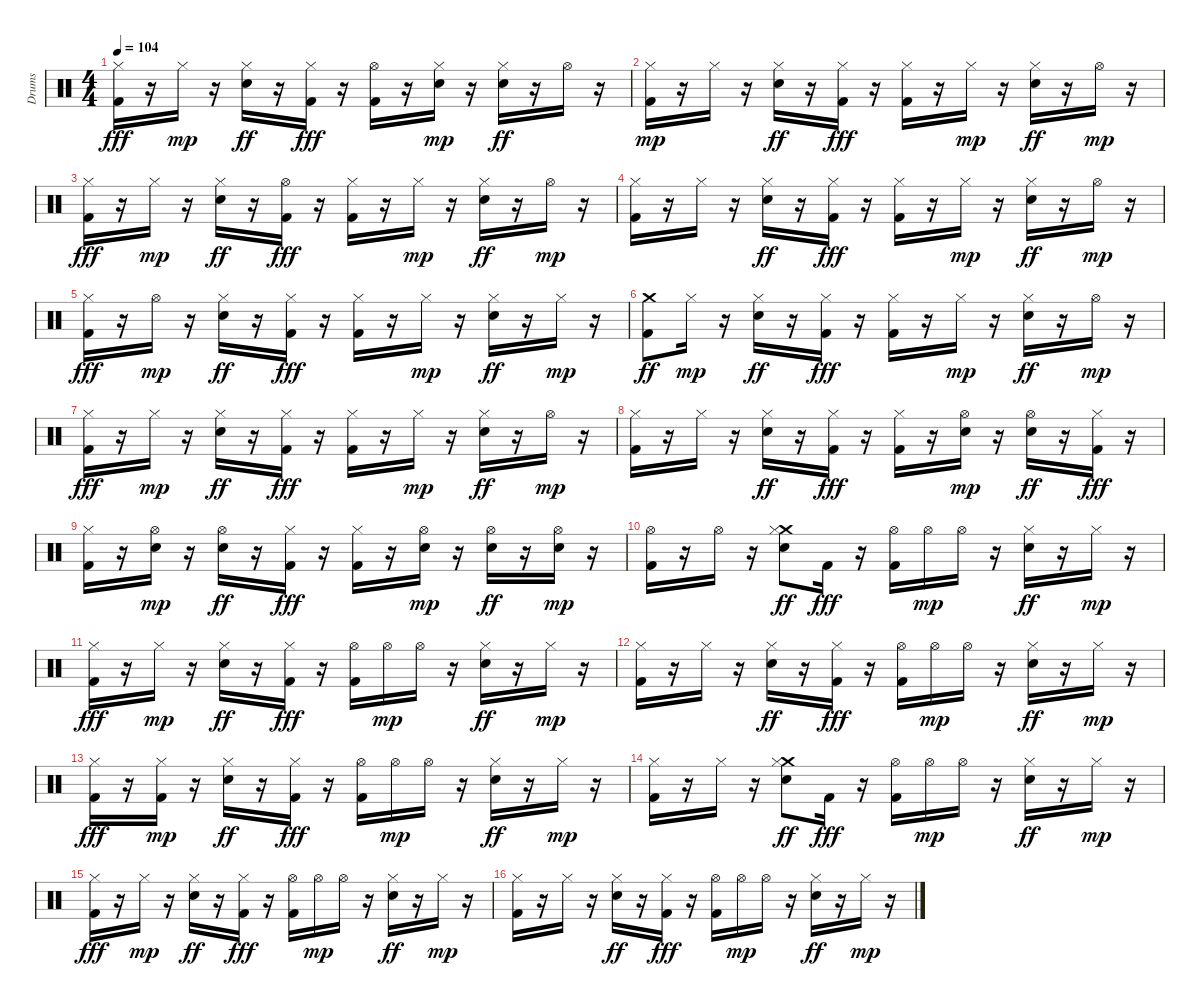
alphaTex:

\track ("Drums" "Drums") {instrument percussion}
\staff {score}
\articulation defaults
\ts (4 4)
\tempo 104
\clef neutral
\ks c
("Hi-Hat (closed)" "Kick (hit) 2").16{dy fff} r.16 "Hi-Hat (closed)".16{dy mp} r.16 ("Hi-Hat (closed)" "Snare (hit) 2").16{dy ff} r.16 ("Hi-Hat (closed)" "Kick (hit) 2").16{dy fff} r.16 ("Hi-Hat (open)" "Kick (hit) 2").16 r.16 ("Snare (hit) 2" "Hi-Hat (closed)").16{dy mp} r.16 ("Hi-Hat (closed)" "Snare (hit) 2").16{dy ff} r.16 "Hi-Hat (open)".16 r.16 |
("Kick (hit) 2" "Hi-Hat (closed)").16{dy mp} r.16 "Hi-Hat (closed)".16 r.16 ("Hi-Hat (closed)" "Snare (hit) 2").16{dy ff} r.16 ("Hi-Hat (closed)" "Kick (hit) 2").16{dy fff} r.16 ("Hi-Hat (closed)" "Kick (hit) 2").16 r.16 "Hi-Hat (closed)".16{dy mp} r.16 ("Hi-Hat (closed)" "Snare (hit) 2").16{dy ff} r.16 "Hi-Hat (open)".16{dy mp} r.16 |
("Hi-Hat (closed)" "Kick (hit) 2").16{dy fff} r.16 "Hi-Hat (closed)".16{dy mp} r.16 ("Hi-Hat (closed)" "Snare (hit) 2").16{dy ff} r.16 ("Hi-Hat (open)" "Kick (hit) 2").16{dy fff} r.16 ("Hi-Hat (closed)" "Kick (hit) 2").16 r.16 "Hi-Hat (closed)".16{dy mp} r.16 ("Hi-Hat (closed)" "Snare (hit) 2").16{dy ff} r.16 "Hi-Hat (open)".16{dy mp} r.16 |
("Kick (hit) 2" "Hi-Hat (closed)").16 r.16 "Hi-Hat (closed)".16 r.16 ("Hi-Hat (closed)" "Snare (hit) 2").16{dy ff} r.16 ("Hi-Hat (closed)" "Kick (hit) 2").16{dy fff} r.16 ("Hi-Hat (closed)" "Kick (hit) 2").16 r.16 "Hi-Hat (closed)".16{dy mp} r.16 ("Hi-Hat (closed)" "Snare (hit) 2").16{dy ff} r.16 "Hi-Hat (open)".16{dy mp} r.16 |
("Hi-Hat (closed)" "Kick (hit) 2").16{dy fff} r.16 "Hi-Hat (open)".16{dy mp} r.16 ("Hi-Hat (closed)" "Snare (hit) 2").16{dy ff} r.16 ("Hi-Hat (closed)" "Kick (hit) 2").16{dy fff} r.16 ("Hi-Hat (closed)" "Kick (hit) 2").16 r.16 "Hi-Hat (closed)".16{dy mp} r.16 ("Hi-Hat (closed)" "Snare (hit) 2").16{dy ff} r.16 "Hi-Hat (closed)".16{dy mp} r.16 |
("Kick (hit) 2" "Crash medium (hit)").8{dy ff} "Hi-Hat (closed)".16{dy mp} r.16 ("Hi-Hat (closed)" "Snare (hit) 2").16{dy ff} r.16 ("Hi-Hat (closed)" "Kick (hit) 2").16{dy fff} r.16 ("Hi-Hat (closed)" "Kick (hit) 2").16 r.16 "Hi-Hat (closed)".16{dy mp} r.16 ("Hi-Hat (closed)" "Snare (hit) 2").16{dy ff} r.16 "Hi-Hat (open)".16{dy mp} r.16 |
("Hi-Hat (closed)" "Kick (hit) 2").16{dy fff} r.16 "Hi-Hat (closed)".16{dy mp} r.16 ("Hi-Hat (closed)" "Snare (hit) 2").16{dy ff} r.16 ("Hi-Hat (closed)" "Kick (hit) 2").16{dy fff} r.16 ("Hi-Hat (closed)" "Kick (hit) 2").16 r.16 "Hi-Hat (closed)".16{dy mp} r.16 ("Hi-Hat (closed)" "Snare (hit) 2").16{dy ff} r.16 "Hi-Hat (open)".16{dy mp} r.16 |
("Kick (hit) 2" "Hi-Hat (closed)").16 r.16 "Hi-Hat (closed)".16 r.16 ("Hi-Hat (closed)" "Snare (hit) 2").16{dy ff} r.16 ("Hi-Hat (closed)" "Kick (hit) 2").16{dy fff} r.16 ("Hi-Hat (closed)" "Kick (hit) 2").16 r.16 ("Snare (hit) 2" "Hi-Hat (open)").16{dy mp} r.16 ("Hi-Hat (open)" "Snare (hit) 2").16{dy ff} r.16 ("Kick (hit) 2" "Hi-Hat (closed)").16{dy fff} r.16 |
("Hi-Hat (closed)" "Kick (hit) 2").16 r.16 ("Snare (hit) 2" "Hi-Hat (open)").16{dy mp} r.16 ("Hi-Hat (open)" "Snare (hit) 2").16{dy ff} r.16 ("Hi-Hat (closed)" "Kick (hit) 2").16{dy fff} r.16 ("Hi-Hat (closed)" "Kick (hit) 2").16 r.16 ("Snare (hit) 2" "Hi-Hat (open)").16{dy mp} r.16 ("Hi-Hat (open)" "Snare (hit) 2").16{dy ff} r.16 ("Snare (hit) 2" "Hi-Hat (open)").16{dy mp} r.16 |
("Kick (hit) 2" "Hi-Hat (open)").16 r.16 "Hi-Hat (open)".16 r.16 ("Crash medium (hit)" "Hi-Hat (closed)" "Snare (hit) 2").8{dy ff} "Kick (hit) 2".16{dy fff} r.16 ("Hi-Hat (open)" "Kick (hit) 2").16 "Hi-Hat (open)".16{dy mp} "Hi-Hat (open)".16 r.16 ("Hi-Hat (closed)" "Snare (hit) 2").16{dy ff} r.16 "Hi-Hat (closed)".16{dy mp} r.16 |
("Hi-Hat (closed)" "Kick (hit) 2").16{dy fff} r.16 "Hi-Hat (closed)".16{dy mp} r.16 ("Hi-Hat (closed)" "Snare (hit) 2").16{dy ff} r.16 ("Hi-Hat (closed)" "Kick (hit) 2").16{dy fff} r.16 ("Hi-Hat (open)" "Kick (hit) 2").16 "Hi-Hat (open)".16{dy mp} "Hi-Hat (open)".16 r.16 ("Hi-Hat (closed)" "Snare (hit) 2").16{dy ff} r.16 "Hi-Hat (closed)".16{dy mp} r.16 |
("Kick (hit) 2" "Hi-Hat (closed)").16 r.16 "Hi-Hat (closed)".16 r.16 ("Hi-Hat (closed)" "Snare (hit) 2").16{dy ff} r.16 ("Hi-Hat (closed)" "Kick (hit) 2").16{dy fff} r.16 ("Hi-Hat (open)" "Kick (hit) 2").16 "Hi-Hat (open)".16{dy mp} "Hi-Hat (open)".16 r.16 ("Hi-Hat (closed)" "Snare (hit) 2").16{dy ff} r.16 "Hi-Hat (closed)".16{dy mp} r.16 |
("Hi-Hat (closed)" "Kick (hit) 2").16{dy fff} r.16 ("Kick (hit) 2" "Hi-Hat (closed)").16{dy mp} r.16 ("Hi-Hat (closed)" "Snare (hit) 2").16{dy ff} r.16 ("Hi-Hat (closed)" "Kick (hit) 2").16{dy fff} r.16 ("Hi-Hat (open)" "Kick (hit) 2").16 "Hi-Hat (open)".16{dy mp} "Hi-Hat (open)".16 r.16 ("Hi-Hat (closed)" "Snare (hit) 2").16{dy ff} r.16 "Hi-Hat (closed)".16{dy mp} r.16 |
("Kick (hit) 2" "Hi-Hat (closed)").16 r.16 "Hi-Hat (closed)".16 r.16 ("Crash medium (hit)" "Hi-Hat (closed)" "Snare (hit) 2").8{dy ff} "Kick (hit) 2".16{dy fff} r.16 ("Hi-Hat (open)" "Kick (hit) 2").16 "Hi-Hat (open)".16{dy mp} "Hi-Hat (open)".16 r.16 ("Hi-Hat (closed)" "Snare (hit) 2").16{dy ff} r.16 "Hi-Hat (closed)".16{dy mp} r.16 |
("Hi-Hat (closed)" "Kick (hit) 2").16{dy fff} r.16 "Hi-Hat (closed)".16{dy mp} r.16 ("Hi-Hat (closed)" "Snare (hit) 2").16{dy ff} r.16 ("Hi-Hat (closed)" "Kick (hit) 2").16{dy fff} r.16 ("Hi-Hat (open)" "Kick (hit) 2").16 "Hi-Hat (open)".16{dy mp} "Hi-Hat (open)".16 r.16 ("Hi-Hat (closed)" "Snare (hit) 2").16{dy ff} r.16 "Hi-Hat (closed)".16{dy mp} r.16 |
("Kick (hit) 2" "Hi-Hat (closed)").16 r.16 "Hi-Hat (closed)".16 r.16 ("Hi-Hat (closed)" "Snare (hit) 2").16{dy ff} r.16 ("Hi-Hat (closed)" "Kick (hit) 2").16{dy fff} r.16 ("Hi-Hat (open)" "Kick (hit) 2").16 "Hi-Hat (open)".16{dy mp} "Hi-Hat (open)".16 r.16 ("Hi-Hat (closed)" "Snare (hit) 2").16{dy ff} r.16 "Hi-Hat (closed)".16{dy mp} r.16
